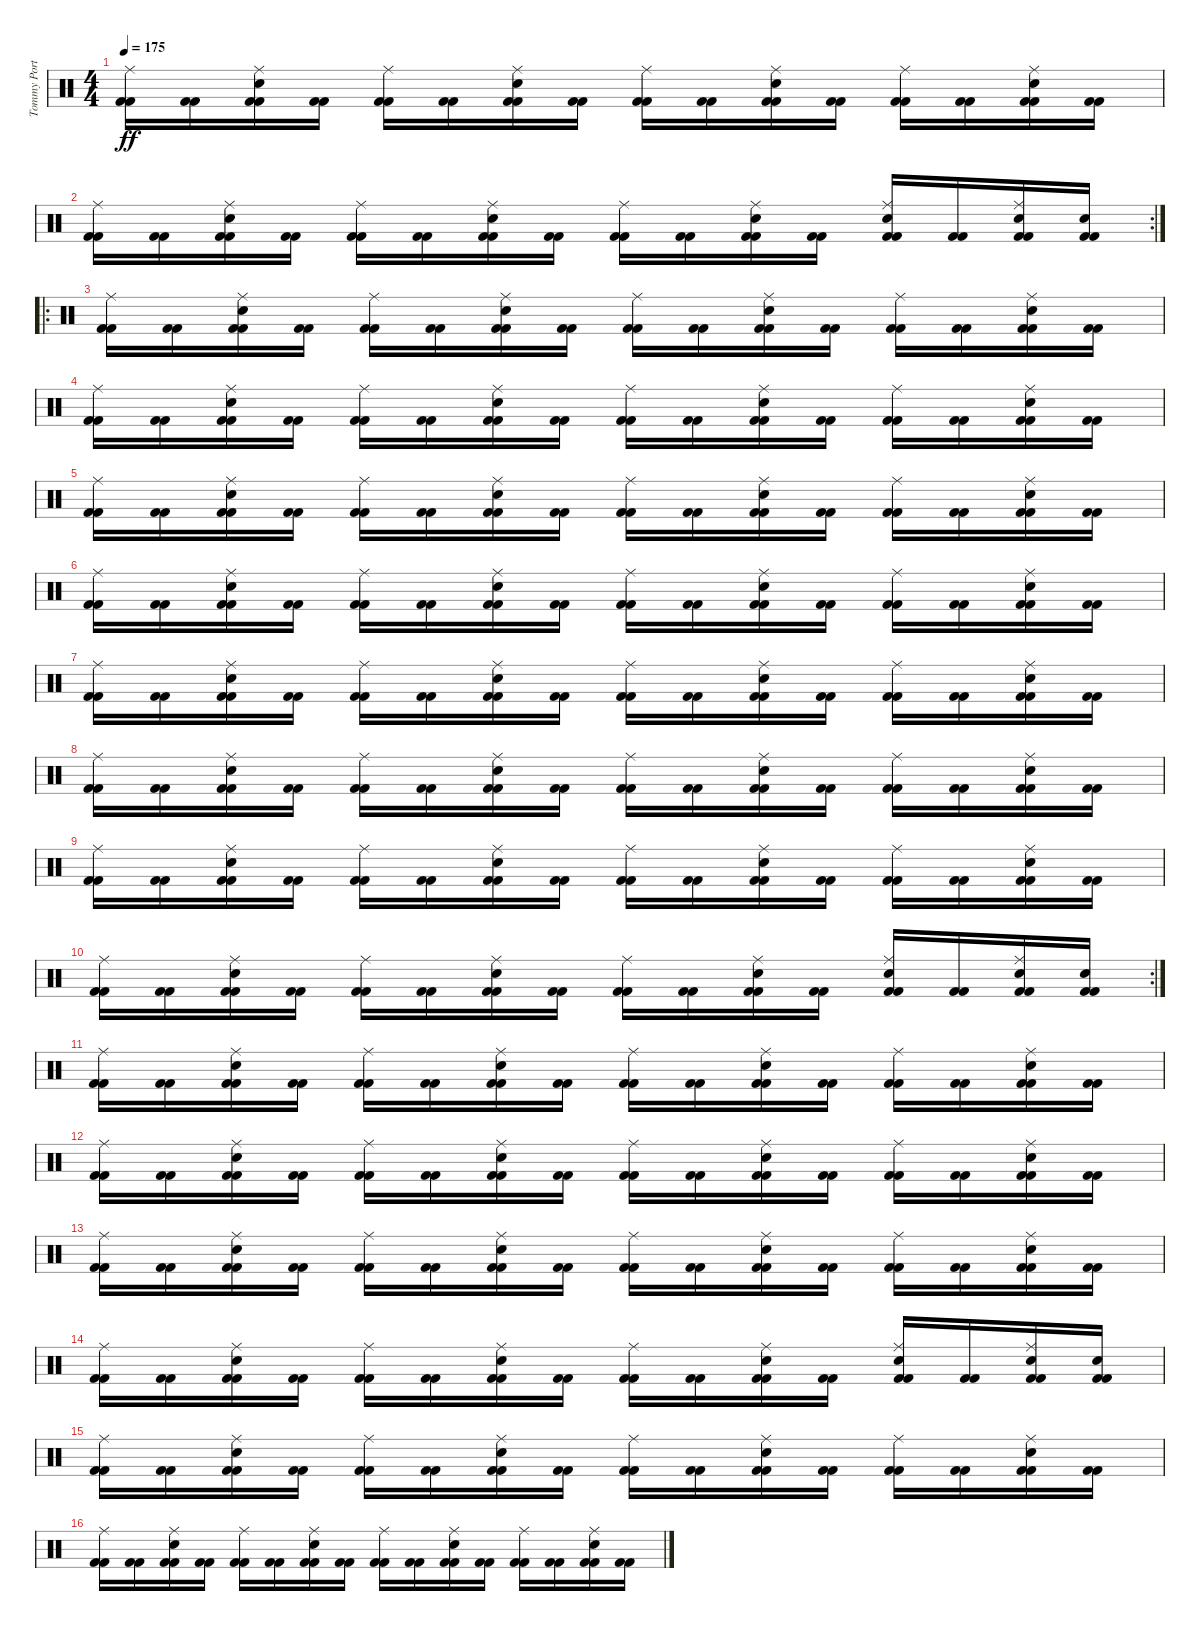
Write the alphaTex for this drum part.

\track ("Tommy Portimo" "Tommy Port") {instrument percussion}
\staff {score}
\articulation defaults
\ts (4 4)
\tempo 175
\clef neutral
\ks c
("Kick (hit) 2" "Kick (hit) 2" "Ride (middle)").16{dy ff} ("Kick (hit) 2" "Kick (hit) 2").16 ("Kick (hit) 2" "Kick (hit) 2" "Ride (middle)" "Electric Snare (hit)").16 ("Kick (hit) 2" "Kick (hit) 2").16 ("Kick (hit) 2" "Kick (hit) 2" "Ride (middle)").16 ("Kick (hit) 2" "Kick (hit) 2").16 ("Kick (hit) 2" "Kick (hit) 2" "Ride (middle)" "Electric Snare (hit)").16 ("Kick (hit) 2" "Kick (hit) 2").16 ("Kick (hit) 2" "Kick (hit) 2" "Ride (middle)").16 ("Kick (hit) 2" "Kick (hit) 2").16 ("Kick (hit) 2" "Kick (hit) 2" "Ride (middle)" "Electric Snare (hit)").16 ("Kick (hit) 2" "Kick (hit) 2").16 ("Kick (hit) 2" "Kick (hit) 2" "Ride (middle)").16 ("Kick (hit) 2" "Kick (hit) 2").16 ("Kick (hit) 2" "Kick (hit) 2" "Ride (middle)" "Electric Snare (hit)").16 ("Kick (hit) 2" "Kick (hit) 2").16 |
\rc 2
("Kick (hit) 2" "Kick (hit) 2" "Ride (middle)").16 ("Kick (hit) 2" "Kick (hit) 2").16 ("Kick (hit) 2" "Kick (hit) 2" "Ride (middle)" "Electric Snare (hit)").16 ("Kick (hit) 2" "Kick (hit) 2").16 ("Kick (hit) 2" "Kick (hit) 2" "Ride (middle)").16 ("Kick (hit) 2" "Kick (hit) 2").16 ("Kick (hit) 2" "Kick (hit) 2" "Ride (middle)" "Electric Snare (hit)").16 ("Kick (hit) 2" "Kick (hit) 2").16 ("Kick (hit) 2" "Kick (hit) 2" "Ride (middle)").16 ("Kick (hit) 2" "Kick (hit) 2").16 ("Kick (hit) 2" "Kick (hit) 2" "Ride (middle)" "Electric Snare (hit)").16 ("Kick (hit) 2" "Kick (hit) 2").16 ("Kick (hit) 2" "Kick (hit) 2" "Ride (middle)" "Electric Snare (hit)").16 ("Kick (hit) 2" "Kick (hit) 2").16 ("Kick (hit) 2" "Kick (hit) 2" "Ride (middle)" "Electric Snare (hit)").16 ("Kick (hit) 2" "Kick (hit) 2" "Electric Snare (hit)").16 |
\ro
("Kick (hit) 2" "Kick (hit) 2" "Ride (middle)").16 ("Kick (hit) 2" "Kick (hit) 2").16 ("Kick (hit) 2" "Kick (hit) 2" "Ride (middle)" "Electric Snare (hit)").16 ("Kick (hit) 2" "Kick (hit) 2").16 ("Kick (hit) 2" "Kick (hit) 2" "Ride (middle)").16 ("Kick (hit) 2" "Kick (hit) 2").16 ("Kick (hit) 2" "Kick (hit) 2" "Ride (middle)" "Electric Snare (hit)").16 ("Kick (hit) 2" "Kick (hit) 2").16 ("Kick (hit) 2" "Kick (hit) 2" "Ride (middle)").16 ("Kick (hit) 2" "Kick (hit) 2").16 ("Kick (hit) 2" "Kick (hit) 2" "Ride (middle)" "Electric Snare (hit)").16 ("Kick (hit) 2" "Kick (hit) 2").16 ("Kick (hit) 2" "Kick (hit) 2" "Ride (middle)").16 ("Kick (hit) 2" "Kick (hit) 2").16 ("Kick (hit) 2" "Kick (hit) 2" "Ride (middle)" "Electric Snare (hit)").16 ("Kick (hit) 2" "Kick (hit) 2").16 |
("Kick (hit) 2" "Kick (hit) 2" "Ride (middle)").16 ("Kick (hit) 2" "Kick (hit) 2").16 ("Kick (hit) 2" "Kick (hit) 2" "Ride (middle)" "Electric Snare (hit)").16 ("Kick (hit) 2" "Kick (hit) 2").16 ("Kick (hit) 2" "Kick (hit) 2" "Ride (middle)").16 ("Kick (hit) 2" "Kick (hit) 2").16 ("Kick (hit) 2" "Kick (hit) 2" "Ride (middle)" "Electric Snare (hit)").16 ("Kick (hit) 2" "Kick (hit) 2").16 ("Kick (hit) 2" "Kick (hit) 2" "Ride (middle)").16 ("Kick (hit) 2" "Kick (hit) 2").16 ("Kick (hit) 2" "Kick (hit) 2" "Ride (middle)" "Electric Snare (hit)").16 ("Kick (hit) 2" "Kick (hit) 2").16 ("Kick (hit) 2" "Kick (hit) 2" "Ride (middle)").16 ("Kick (hit) 2" "Kick (hit) 2").16 ("Kick (hit) 2" "Kick (hit) 2" "Ride (middle)" "Electric Snare (hit)").16 ("Kick (hit) 2" "Kick (hit) 2").16 |
("Kick (hit) 2" "Kick (hit) 2" "Ride (middle)").16 ("Kick (hit) 2" "Kick (hit) 2").16 ("Kick (hit) 2" "Kick (hit) 2" "Ride (middle)" "Electric Snare (hit)").16 ("Kick (hit) 2" "Kick (hit) 2").16 ("Kick (hit) 2" "Kick (hit) 2" "Ride (middle)").16 ("Kick (hit) 2" "Kick (hit) 2").16 ("Kick (hit) 2" "Kick (hit) 2" "Ride (middle)" "Electric Snare (hit)").16 ("Kick (hit) 2" "Kick (hit) 2").16 ("Kick (hit) 2" "Kick (hit) 2" "Ride (middle)").16 ("Kick (hit) 2" "Kick (hit) 2").16 ("Kick (hit) 2" "Kick (hit) 2" "Ride (middle)" "Electric Snare (hit)").16 ("Kick (hit) 2" "Kick (hit) 2").16 ("Kick (hit) 2" "Kick (hit) 2" "Ride (middle)").16 ("Kick (hit) 2" "Kick (hit) 2").16 ("Kick (hit) 2" "Kick (hit) 2" "Ride (middle)" "Electric Snare (hit)").16 ("Kick (hit) 2" "Kick (hit) 2").16 |
("Kick (hit) 2" "Kick (hit) 2" "Ride (middle)").16 ("Kick (hit) 2" "Kick (hit) 2").16 ("Kick (hit) 2" "Kick (hit) 2" "Ride (middle)" "Electric Snare (hit)").16 ("Kick (hit) 2" "Kick (hit) 2").16 ("Kick (hit) 2" "Kick (hit) 2" "Ride (middle)").16 ("Kick (hit) 2" "Kick (hit) 2").16 ("Kick (hit) 2" "Kick (hit) 2" "Ride (middle)" "Electric Snare (hit)").16 ("Kick (hit) 2" "Kick (hit) 2").16 ("Kick (hit) 2" "Kick (hit) 2" "Ride (middle)").16 ("Kick (hit) 2" "Kick (hit) 2").16 ("Kick (hit) 2" "Kick (hit) 2" "Ride (middle)" "Electric Snare (hit)").16 ("Kick (hit) 2" "Kick (hit) 2").16 ("Kick (hit) 2" "Kick (hit) 2" "Ride (middle)").16 ("Kick (hit) 2" "Kick (hit) 2").16 ("Kick (hit) 2" "Kick (hit) 2" "Ride (middle)" "Electric Snare (hit)").16 ("Kick (hit) 2" "Kick (hit) 2").16 |
("Kick (hit) 2" "Kick (hit) 2" "Ride (middle)").16 ("Kick (hit) 2" "Kick (hit) 2").16 ("Kick (hit) 2" "Kick (hit) 2" "Ride (middle)" "Electric Snare (hit)").16 ("Kick (hit) 2" "Kick (hit) 2").16 ("Kick (hit) 2" "Kick (hit) 2" "Ride (middle)").16 ("Kick (hit) 2" "Kick (hit) 2").16 ("Kick (hit) 2" "Kick (hit) 2" "Ride (middle)" "Electric Snare (hit)").16 ("Kick (hit) 2" "Kick (hit) 2").16 ("Kick (hit) 2" "Kick (hit) 2" "Ride (middle)").16 ("Kick (hit) 2" "Kick (hit) 2").16 ("Kick (hit) 2" "Kick (hit) 2" "Ride (middle)" "Electric Snare (hit)").16 ("Kick (hit) 2" "Kick (hit) 2").16 ("Kick (hit) 2" "Kick (hit) 2" "Ride (middle)").16 ("Kick (hit) 2" "Kick (hit) 2").16 ("Kick (hit) 2" "Kick (hit) 2" "Ride (middle)" "Electric Snare (hit)").16 ("Kick (hit) 2" "Kick (hit) 2").16 |
("Kick (hit) 2" "Kick (hit) 2" "Ride (middle)").16 ("Kick (hit) 2" "Kick (hit) 2").16 ("Kick (hit) 2" "Kick (hit) 2" "Ride (middle)" "Electric Snare (hit)").16 ("Kick (hit) 2" "Kick (hit) 2").16 ("Kick (hit) 2" "Kick (hit) 2" "Ride (middle)").16 ("Kick (hit) 2" "Kick (hit) 2").16 ("Kick (hit) 2" "Kick (hit) 2" "Ride (middle)" "Electric Snare (hit)").16 ("Kick (hit) 2" "Kick (hit) 2").16 ("Kick (hit) 2" "Kick (hit) 2" "Ride (middle)").16 ("Kick (hit) 2" "Kick (hit) 2").16 ("Kick (hit) 2" "Kick (hit) 2" "Ride (middle)" "Electric Snare (hit)").16 ("Kick (hit) 2" "Kick (hit) 2").16 ("Kick (hit) 2" "Kick (hit) 2" "Ride (middle)").16 ("Kick (hit) 2" "Kick (hit) 2").16 ("Kick (hit) 2" "Kick (hit) 2" "Ride (middle)" "Electric Snare (hit)").16 ("Kick (hit) 2" "Kick (hit) 2").16 |
("Kick (hit) 2" "Kick (hit) 2" "Ride (middle)").16 ("Kick (hit) 2" "Kick (hit) 2").16 ("Kick (hit) 2" "Kick (hit) 2" "Ride (middle)" "Electric Snare (hit)").16 ("Kick (hit) 2" "Kick (hit) 2").16 ("Kick (hit) 2" "Kick (hit) 2" "Ride (middle)").16 ("Kick (hit) 2" "Kick (hit) 2").16 ("Kick (hit) 2" "Kick (hit) 2" "Ride (middle)" "Electric Snare (hit)").16 ("Kick (hit) 2" "Kick (hit) 2").16 ("Kick (hit) 2" "Kick (hit) 2" "Ride (middle)").16 ("Kick (hit) 2" "Kick (hit) 2").16 ("Kick (hit) 2" "Kick (hit) 2" "Ride (middle)" "Electric Snare (hit)").16 ("Kick (hit) 2" "Kick (hit) 2").16 ("Kick (hit) 2" "Kick (hit) 2" "Ride (middle)").16 ("Kick (hit) 2" "Kick (hit) 2").16 ("Kick (hit) 2" "Kick (hit) 2" "Ride (middle)" "Electric Snare (hit)").16 ("Kick (hit) 2" "Kick (hit) 2").16 |
\rc 2
("Kick (hit) 2" "Kick (hit) 2" "Ride (middle)").16 ("Kick (hit) 2" "Kick (hit) 2").16 ("Kick (hit) 2" "Kick (hit) 2" "Ride (middle)" "Electric Snare (hit)").16 ("Kick (hit) 2" "Kick (hit) 2").16 ("Kick (hit) 2" "Kick (hit) 2" "Ride (middle)").16 ("Kick (hit) 2" "Kick (hit) 2").16 ("Kick (hit) 2" "Kick (hit) 2" "Ride (middle)" "Electric Snare (hit)").16 ("Kick (hit) 2" "Kick (hit) 2").16 ("Kick (hit) 2" "Kick (hit) 2" "Ride (middle)").16 ("Kick (hit) 2" "Kick (hit) 2").16 ("Kick (hit) 2" "Kick (hit) 2" "Ride (middle)" "Electric Snare (hit)").16 ("Kick (hit) 2" "Kick (hit) 2").16 ("Kick (hit) 2" "Kick (hit) 2" "Ride (middle)" "Electric Snare (hit)").16 ("Kick (hit) 2" "Kick (hit) 2").16 ("Kick (hit) 2" "Kick (hit) 2" "Ride (middle)" "Electric Snare (hit)").16 ("Kick (hit) 2" "Kick (hit) 2" "Electric Snare (hit)").16 |
("Kick (hit) 2" "Kick (hit) 2" "Ride (middle)").16 ("Kick (hit) 2" "Kick (hit) 2").16 ("Kick (hit) 2" "Kick (hit) 2" "Ride (middle)" "Electric Snare (hit)").16 ("Kick (hit) 2" "Kick (hit) 2").16 ("Kick (hit) 2" "Kick (hit) 2" "Ride (middle)").16 ("Kick (hit) 2" "Kick (hit) 2").16 ("Kick (hit) 2" "Kick (hit) 2" "Ride (middle)" "Electric Snare (hit)").16 ("Kick (hit) 2" "Kick (hit) 2").16 ("Kick (hit) 2" "Kick (hit) 2" "Ride (middle)").16 ("Kick (hit) 2" "Kick (hit) 2").16 ("Kick (hit) 2" "Kick (hit) 2" "Ride (middle)" "Electric Snare (hit)").16 ("Kick (hit) 2" "Kick (hit) 2").16 ("Kick (hit) 2" "Kick (hit) 2" "Ride (middle)").16 ("Kick (hit) 2" "Kick (hit) 2").16 ("Kick (hit) 2" "Kick (hit) 2" "Ride (middle)" "Electric Snare (hit)").16 ("Kick (hit) 2" "Kick (hit) 2").16 |
("Kick (hit) 2" "Kick (hit) 2" "Ride (middle)").16 ("Kick (hit) 2" "Kick (hit) 2").16 ("Kick (hit) 2" "Kick (hit) 2" "Ride (middle)" "Electric Snare (hit)").16 ("Kick (hit) 2" "Kick (hit) 2").16 ("Kick (hit) 2" "Kick (hit) 2" "Ride (middle)").16 ("Kick (hit) 2" "Kick (hit) 2").16 ("Kick (hit) 2" "Kick (hit) 2" "Ride (middle)" "Electric Snare (hit)").16 ("Kick (hit) 2" "Kick (hit) 2").16 ("Kick (hit) 2" "Kick (hit) 2" "Ride (middle)").16 ("Kick (hit) 2" "Kick (hit) 2").16 ("Kick (hit) 2" "Kick (hit) 2" "Ride (middle)" "Electric Snare (hit)").16 ("Kick (hit) 2" "Kick (hit) 2").16 ("Kick (hit) 2" "Kick (hit) 2" "Ride (middle)").16 ("Kick (hit) 2" "Kick (hit) 2").16 ("Kick (hit) 2" "Kick (hit) 2" "Ride (middle)" "Electric Snare (hit)").16 ("Kick (hit) 2" "Kick (hit) 2").16 |
("Kick (hit) 2" "Kick (hit) 2" "Ride (middle)").16 ("Kick (hit) 2" "Kick (hit) 2").16 ("Kick (hit) 2" "Kick (hit) 2" "Ride (middle)" "Electric Snare (hit)").16 ("Kick (hit) 2" "Kick (hit) 2").16 ("Kick (hit) 2" "Kick (hit) 2" "Ride (middle)").16 ("Kick (hit) 2" "Kick (hit) 2").16 ("Kick (hit) 2" "Kick (hit) 2" "Ride (middle)" "Electric Snare (hit)").16 ("Kick (hit) 2" "Kick (hit) 2").16 ("Kick (hit) 2" "Kick (hit) 2" "Ride (middle)").16 ("Kick (hit) 2" "Kick (hit) 2").16 ("Kick (hit) 2" "Kick (hit) 2" "Ride (middle)" "Electric Snare (hit)").16 ("Kick (hit) 2" "Kick (hit) 2").16 ("Kick (hit) 2" "Kick (hit) 2" "Ride (middle)").16 ("Kick (hit) 2" "Kick (hit) 2").16 ("Kick (hit) 2" "Kick (hit) 2" "Ride (middle)" "Electric Snare (hit)").16 ("Kick (hit) 2" "Kick (hit) 2").16 |
("Kick (hit) 2" "Kick (hit) 2" "Ride (middle)").16 ("Kick (hit) 2" "Kick (hit) 2").16 ("Kick (hit) 2" "Kick (hit) 2" "Ride (middle)" "Electric Snare (hit)").16 ("Kick (hit) 2" "Kick (hit) 2").16 ("Kick (hit) 2" "Kick (hit) 2" "Ride (middle)").16 ("Kick (hit) 2" "Kick (hit) 2").16 ("Kick (hit) 2" "Kick (hit) 2" "Ride (middle)" "Electric Snare (hit)").16 ("Kick (hit) 2" "Kick (hit) 2").16 ("Kick (hit) 2" "Kick (hit) 2" "Ride (middle)").16 ("Kick (hit) 2" "Kick (hit) 2").16 ("Kick (hit) 2" "Kick (hit) 2" "Ride (middle)" "Electric Snare (hit)").16 ("Kick (hit) 2" "Kick (hit) 2").16 ("Kick (hit) 2" "Kick (hit) 2" "Ride (middle)" "Electric Snare (hit)").16 ("Kick (hit) 2" "Kick (hit) 2").16 ("Kick (hit) 2" "Kick (hit) 2" "Ride (middle)" "Electric Snare (hit)").16 ("Kick (hit) 2" "Kick (hit) 2" "Electric Snare (hit)").16 |
("Kick (hit) 2" "Kick (hit) 2" "Ride (middle)").16 ("Kick (hit) 2" "Kick (hit) 2").16 ("Kick (hit) 2" "Kick (hit) 2" "Ride (middle)" "Electric Snare (hit)").16 ("Kick (hit) 2" "Kick (hit) 2").16 ("Kick (hit) 2" "Kick (hit) 2" "Ride (middle)").16 ("Kick (hit) 2" "Kick (hit) 2").16 ("Kick (hit) 2" "Kick (hit) 2" "Ride (middle)" "Electric Snare (hit)").16 ("Kick (hit) 2" "Kick (hit) 2").16 ("Kick (hit) 2" "Kick (hit) 2" "Ride (middle)").16 ("Kick (hit) 2" "Kick (hit) 2").16 ("Kick (hit) 2" "Kick (hit) 2" "Ride (middle)" "Electric Snare (hit)").16 ("Kick (hit) 2" "Kick (hit) 2").16 ("Kick (hit) 2" "Kick (hit) 2" "Ride (middle)").16 ("Kick (hit) 2" "Kick (hit) 2").16 ("Kick (hit) 2" "Kick (hit) 2" "Ride (middle)" "Electric Snare (hit)").16 ("Kick (hit) 2" "Kick (hit) 2").16 |
("Kick (hit) 2" "Kick (hit) 2" "Ride (middle)").16 ("Kick (hit) 2" "Kick (hit) 2").16 ("Kick (hit) 2" "Kick (hit) 2" "Ride (middle)" "Electric Snare (hit)").16 ("Kick (hit) 2" "Kick (hit) 2").16 ("Kick (hit) 2" "Kick (hit) 2" "Ride (middle)").16 ("Kick (hit) 2" "Kick (hit) 2").16 ("Kick (hit) 2" "Kick (hit) 2" "Ride (middle)" "Electric Snare (hit)").16 ("Kick (hit) 2" "Kick (hit) 2").16 ("Kick (hit) 2" "Kick (hit) 2" "Ride (middle)").16 ("Kick (hit) 2" "Kick (hit) 2").16 ("Kick (hit) 2" "Kick (hit) 2" "Ride (middle)" "Electric Snare (hit)").16 ("Kick (hit) 2" "Kick (hit) 2").16 ("Kick (hit) 2" "Kick (hit) 2" "Ride (middle)").16 ("Kick (hit) 2" "Kick (hit) 2").16 ("Kick (hit) 2" "Kick (hit) 2" "Ride (middle)" "Electric Snare (hit)").16 ("Kick (hit) 2" "Kick (hit) 2").16
